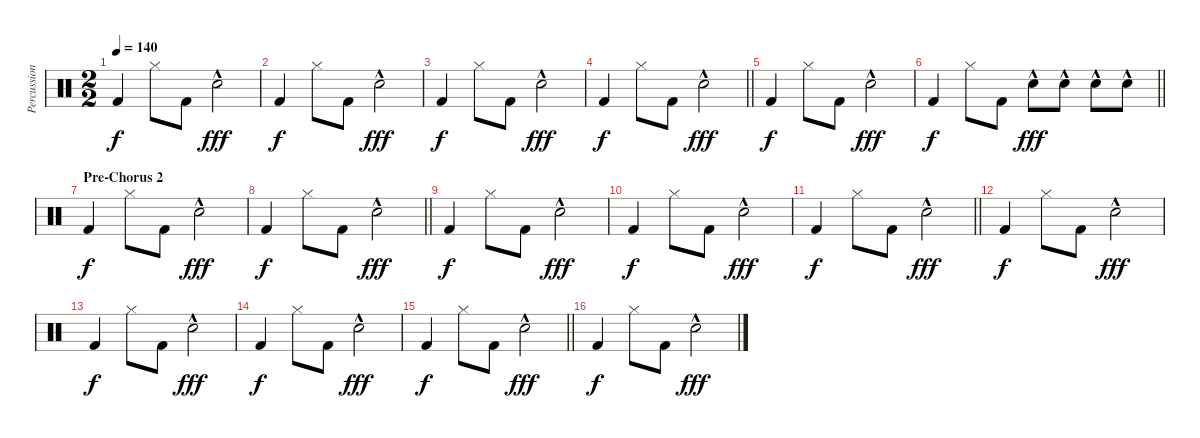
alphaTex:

\track ("Percussion" "Percussion") {instrument percussion}
\staff {score}
\articulation defaults
\ts (2 2)
\tempo 140
\clef neutral
\ks c "Kick (hit) 2".4{dy f} "Hi-Hat (closed)".8 "Kick (hit) 2".8 "Hand Clap (hit)"{hac}.2{dy fff}
|
"Kick (hit) 2".4{dy f} "Hi-Hat (closed)".8 "Kick (hit) 2".8 "Hand Clap (hit)"{hac}.2{dy fff} |
"Kick (hit) 2".4{dy f} "Hi-Hat (closed)".8 "Kick (hit) 2".8 "Hand Clap (hit)"{hac}.2{dy fff} |
\barLineRight lightlight "Kick (hit) 2".4{dy f} "Hi-Hat (closed)".8 "Kick (hit) 2".8 "Hand Clap (hit)"{hac}.2{dy fff}
|
"Kick (hit) 2".4{dy f} "Hi-Hat (closed)".8 "Kick (hit) 2".8 "Hand Clap (hit)"{hac}.2{dy fff} |
\barLineRight lightlight "Kick (hit) 2".4{dy f} "Hi-Hat (closed)".8 "Kick (hit) 2".8 "Hand Clap (hit)"{hac}.8{dy fff} "Hand Clap (hit)"{hac}.8 "Hand Clap (hit)"{hac}.8 "Hand Clap (hit)"{hac}.8
|
\section ("" "Pre-Chorus 2")
"Kick (hit) 2".4{dy f} "Hi-Hat (closed)".8 "Kick (hit) 2".8 "Hand Clap (hit)"{hac}.2{dy fff} |
\barLineRight lightlight "Kick (hit) 2".4{dy f} "Hi-Hat (closed)".8 "Kick (hit) 2".8 "Hand Clap (hit)"{hac}.2{dy fff}
|
"Kick (hit) 2".4{dy f} "Hi-Hat (closed)".8 "Kick (hit) 2".8 "Hand Clap (hit)"{hac}.2{dy fff} |
"Kick (hit) 2".4{dy f} "Hi-Hat (closed)".8 "Kick (hit) 2".8 "Hand Clap (hit)"{hac}.2{dy fff} |
\barLineRight lightlight "Kick (hit) 2".4{dy f} "Hi-Hat (closed)".8 "Kick (hit) 2".8 "Hand Clap (hit)"{hac}.2{dy fff}
|
"Kick (hit) 2".4{dy f} "Hi-Hat (closed)".8 "Kick (hit) 2".8 "Hand Clap (hit)"{hac}.2{dy fff} |
"Kick (hit) 2".4{dy f} "Hi-Hat (closed)".8 "Kick (hit) 2".8 "Hand Clap (hit)"{hac}.2{dy fff} |
"Kick (hit) 2".4{dy f} "Hi-Hat (closed)".8 "Kick (hit) 2".8 "Hand Clap (hit)"{hac}.2{dy fff} |
\barLineRight lightlight "Kick (hit) 2".4{dy f} "Hi-Hat (closed)".8 "Kick (hit) 2".8 "Hand Clap (hit)"{hac}.2{dy fff}
|
"Kick (hit) 2".4{dy f} "Hi-Hat (closed)".8 "Kick (hit) 2".8 "Hand Clap (hit)"{hac}.2{dy fff}
